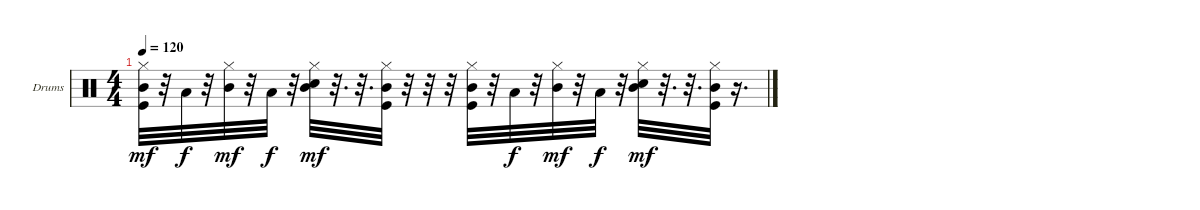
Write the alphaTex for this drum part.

\bracketExtendMode groupsimilarinstruments
\firstSystemTrackNameOrientation horizontal
\otherSystemsTrackNameOrientation horizontal
\track ("Drumkit" "Drums") {instrument percussion}
\staff {score}
\articulation defaults
\ts (4 4)
\tempo 120
\clef neutral
\ks c
("Hi-Hat (closed)" "Kick (hit)" "Mid Tom (hit)").32{dy mf} r.32 "Low Tom (hit)".32{dy f} r.32 ("Hi-Hat (closed)" "Mid Tom (hit)").32{dy mf} r.32 "Low Tom (hit)".32{dy f} r.32 ("Snare (hit) 2" "Hi-Hat (closed)" "Mid Tom (hit)").32{dy mf} r.32{d} r.32{d} ("Hi-Hat (closed)" "Kick (hit)" "Mid Tom (hit)").32 r.32 r.32 r.32 ("Hi-Hat (closed)" "Kick (hit)" "Mid Tom (hit)").32 r.32 "Low Tom (hit)".32{dy f} r.32 ("Hi-Hat (closed)" "Mid Tom (hit)").32{dy mf} r.32 "Low Tom (hit)".32{dy f} r.32 ("Snare (hit) 2" "Hi-Hat (closed)" "Mid Tom (hit)").32{dy mf} r.32{d} r.32{d} ("Hi-Hat (closed)" "Kick (hit)" "Mid Tom (hit)").32 r.16{d}
